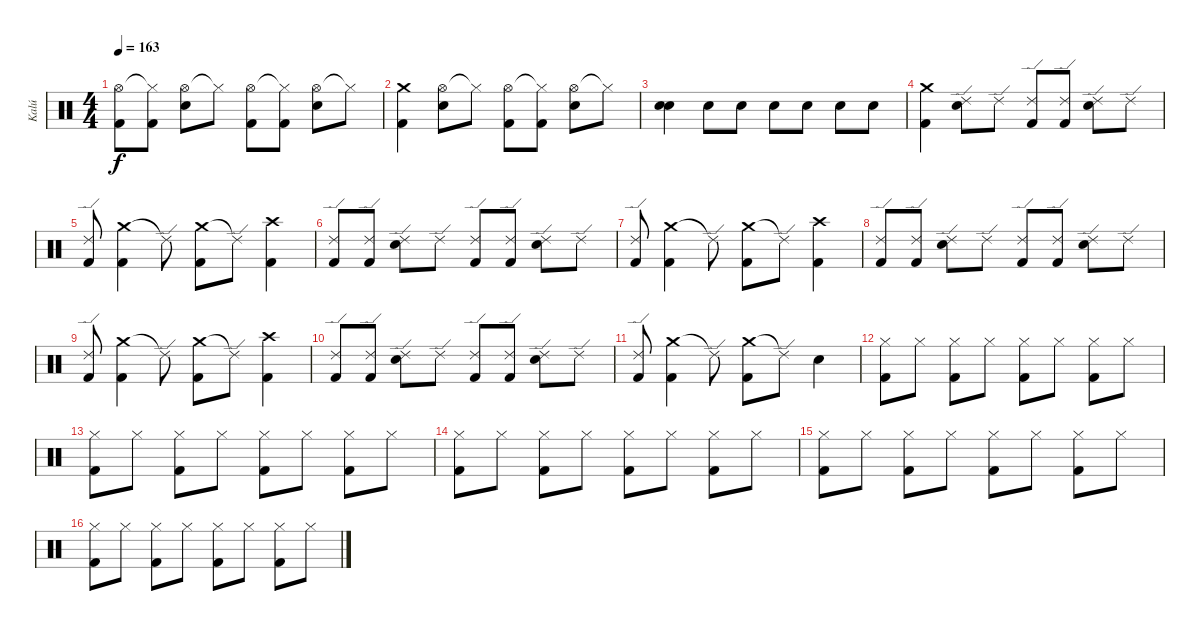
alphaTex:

\track ("Kalú" "Kalú") {instrument percussion}
\staff {score}
\articulation defaults
\ts (4 4)
\tempo 163
\clef neutral
\ks c
("Hi-Hat (open)" "Kick (hit) 2").8{dy f} ("Hi-Hat (closed)"{t} "Kick (hit) 2").8 ("Hi-Hat (open)" "Snare (hit) 2").8 "Hi-Hat (closed)"{t}.8 ("Hi-Hat (open)" "Kick (hit) 2").8 ("Hi-Hat (closed)"{t} "Kick (hit) 2").8 ("Hi-Hat (open)" "Snare (hit) 2").8 "Hi-Hat (closed)"{t}.8 |
("Crash medium (hit)" "Kick (hit) 2").4 ("Hi-Hat (open)" "Snare (hit) 2").8 "Hi-Hat (closed)"{t}.8 ("Hi-Hat (open)" "Kick (hit) 2").8 ("Hi-Hat (closed)"{t} "Kick (hit) 2").8 ("Hi-Hat (open)" "Snare (hit) 2").8 "Hi-Hat (closed)"{t}.8 |
("Snare (hit) 2" "Snare (hit) 2").4 "Snare (hit) 2".8 "Snare (hit) 2".8 "Snare (hit) 2".8 "Snare (hit) 2".8 "Snare (hit) 2".8 "Snare (hit) 2".8 |
("Crash medium (hit)" "Kick (hit) 2").4 ("Ride (edge) 2" "Snare (hit) 2").8 "Ride (edge) 2".8 ("Ride (edge) 2" "Kick (hit) 2").8 ("Ride (edge) 2" "Kick (hit) 2").8 ("Ride (edge) 2" "Snare (hit) 2").8 "Ride (edge) 2".8 |
("Ride (edge) 2" "Kick (hit) 2").8 ("Crash medium (hit)" "Kick (hit) 2").4 "Ride (edge) 2"{t}.8 ("Crash medium (hit)" "Kick (hit) 2").8 "Ride (edge) 2"{t}.8 ("Crash high (hit)" "Kick (hit) 2").4 |
("Ride (edge) 2" "Kick (hit) 2").8 ("Ride (edge) 2" "Kick (hit) 2").8 ("Ride (edge) 2" "Snare (hit) 2").8 "Ride (edge) 2".8 ("Ride (edge) 2" "Kick (hit) 2").8 ("Ride (edge) 2" "Kick (hit) 2").8 ("Ride (edge) 2" "Snare (hit) 2").8 "Ride (edge) 2".8 |
("Ride (edge) 2" "Kick (hit) 2").8 ("Crash medium (hit)" "Kick (hit) 2").4 "Ride (edge) 2"{t}.8 ("Crash medium (hit)" "Kick (hit) 2").8 "Ride (edge) 2"{t}.8 ("Crash high (hit)" "Kick (hit) 2").4 |
("Ride (edge) 2" "Kick (hit) 2").8 ("Ride (edge) 2" "Kick (hit) 2").8 ("Ride (edge) 2" "Snare (hit) 2").8 "Ride (edge) 2".8 ("Ride (edge) 2" "Kick (hit) 2").8 ("Ride (edge) 2" "Kick (hit) 2").8 ("Ride (edge) 2" "Snare (hit) 2").8 "Ride (edge) 2".8 |
("Ride (edge) 2" "Kick (hit) 2").8 ("Crash medium (hit)" "Kick (hit) 2").4 "Ride (edge) 2"{t}.8 ("Crash medium (hit)" "Kick (hit) 2").8 "Ride (edge) 2"{t}.8 ("Crash high (hit)" "Kick (hit) 2").4 |
("Ride (edge) 2" "Kick (hit) 2").8 ("Ride (edge) 2" "Kick (hit) 2").8 ("Ride (edge) 2" "Snare (hit) 2").8 "Ride (edge) 2".8 ("Ride (edge) 2" "Kick (hit) 2").8 ("Ride (edge) 2" "Kick (hit) 2").8 ("Ride (edge) 2" "Snare (hit) 2").8 "Ride (edge) 2".8 |
("Ride (edge) 2" "Kick (hit) 2").8 ("Crash medium (hit)" "Kick (hit) 2").4 "Ride (edge) 2"{t}.8 ("Crash medium (hit)" "Kick (hit) 2").8 "Ride (edge) 2"{t}.8 "Snare (hit) 2".4 |
("Hi-Hat (closed)" "Kick (hit) 2").8 "Hi-Hat (closed)".8 ("Hi-Hat (closed)" "Kick (hit) 2").8 "Hi-Hat (closed)".8 ("Hi-Hat (closed)" "Kick (hit) 2").8 "Hi-Hat (closed)".8 ("Hi-Hat (closed)" "Kick (hit) 2").8 "Hi-Hat (closed)".8 |
("Hi-Hat (closed)" "Kick (hit) 2").8 "Hi-Hat (closed)".8 ("Hi-Hat (closed)" "Kick (hit) 2").8 "Hi-Hat (closed)".8 ("Hi-Hat (closed)" "Kick (hit) 2").8 "Hi-Hat (closed)".8 ("Hi-Hat (closed)" "Kick (hit) 2").8 "Hi-Hat (closed)".8 |
("Hi-Hat (closed)" "Kick (hit) 2").8 "Hi-Hat (closed)".8 ("Hi-Hat (closed)" "Kick (hit) 2").8 "Hi-Hat (closed)".8 ("Hi-Hat (closed)" "Kick (hit) 2").8 "Hi-Hat (closed)".8 ("Hi-Hat (closed)" "Kick (hit) 2").8 "Hi-Hat (closed)".8 |
("Hi-Hat (closed)" "Kick (hit) 2").8 "Hi-Hat (closed)".8 ("Hi-Hat (closed)" "Kick (hit) 2").8 "Hi-Hat (closed)".8 ("Hi-Hat (closed)" "Kick (hit) 2").8 "Hi-Hat (closed)".8 ("Hi-Hat (closed)" "Kick (hit) 2").8 "Hi-Hat (closed)".8 |
("Hi-Hat (closed)" "Kick (hit) 2").8 "Hi-Hat (closed)".8 ("Hi-Hat (closed)" "Kick (hit) 2").8 "Hi-Hat (closed)".8 ("Hi-Hat (closed)" "Kick (hit) 2").8 "Hi-Hat (closed)".8 ("Hi-Hat (closed)" "Kick (hit) 2").8 "Hi-Hat (closed)".8
